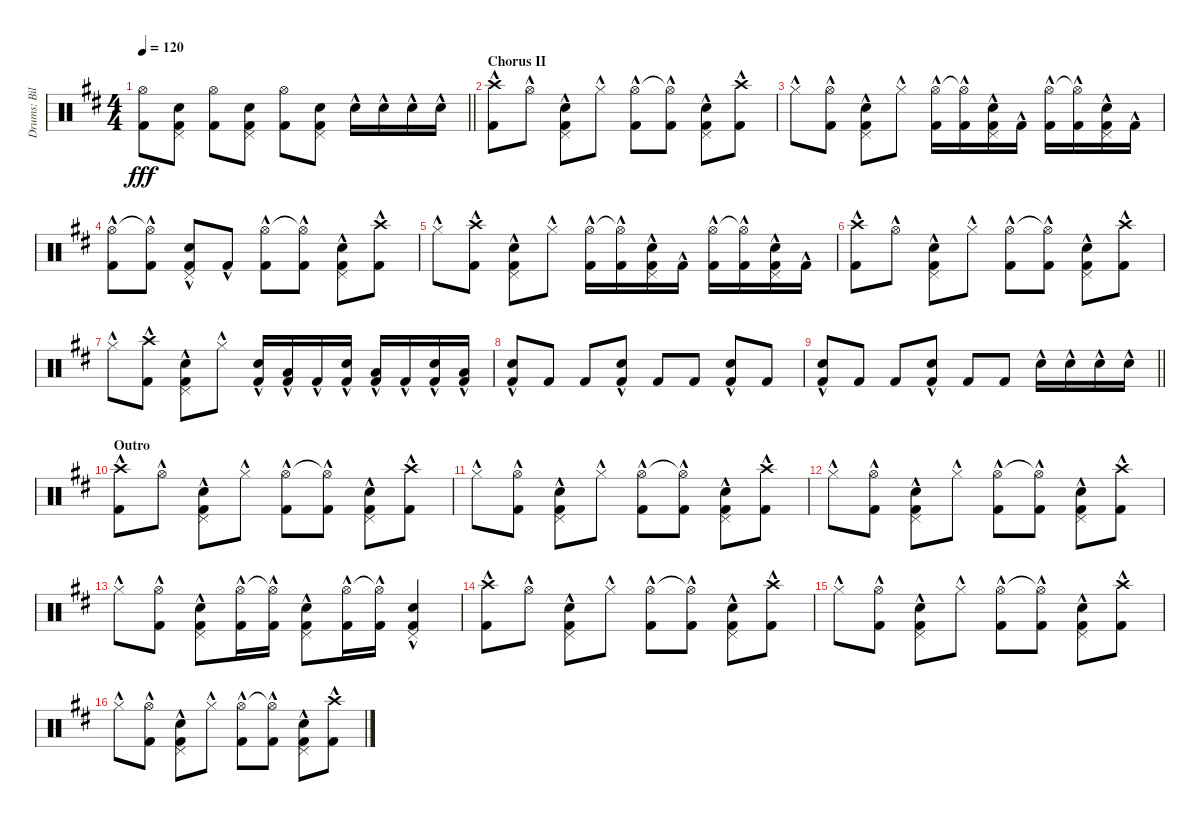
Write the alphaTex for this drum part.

\track ("Drums: Bill" "Drums: Bil") {instrument percussion}
\staff {score}
\articulation defaults
\ts (4 4)
\tempo 120
\clef neutral
\barLineRight lightlight
\ks d
("Hi-Hat (open)" "Kick (hit) 2").8{dy fff} ("Pedal Hi-Hat (hit)" "Snare (hit) 2" "Kick (hit) 2").8 ("Hi-Hat (open)" "Kick (hit) 2").8 ("Pedal Hi-Hat (hit)" "Snare (hit) 2" "Kick (hit) 2").8 ("Hi-Hat (open)" "Kick (hit) 2").8 ("Pedal Hi-Hat (hit)" "Snare (hit) 2" "Kick (hit) 2").8 "Snare (hit) 2"{hac}.16 "Snare (hit) 2"{hac}.16 "Snare (hit) 2"{hac}.16 "Snare (hit) 2"{hac}.16 |
\section ("" "Chorus II")
("Crash high (hit)"{hac} "Kick (hit) 2"{hac}).8 "Hi-Hat (open)"{hac}.8 ("Pedal Hi-Hat (hit)"{hac} "Snare (hit) 2"{hac} "Kick (hit) 2"{hac}).8 "Hi-Hat (closed)"{hac}.8 ("Hi-Hat (open)"{hac} "Kick (hit) 2"{hac}).8 ("Hi-Hat (open)"{t} "Kick (hit) 2"{hac}).8 ("Pedal Hi-Hat (hit)"{hac} "Snare (hit) 2"{hac} "Kick (hit) 2"{hac}).8 ("Crash high (hit)"{hac} "Kick (hit) 2"{hac}).8 |
"Hi-Hat (closed)"{hac}.8 ("Hi-Hat (open)"{hac} "Kick (hit) 2"{hac}).8 ("Pedal Hi-Hat (hit)"{hac} "Snare (hit) 2"{hac} "Kick (hit) 2"{hac}).8 "Hi-Hat (closed)"{hac}.8 ("Hi-Hat (open)"{hac} "Kick (hit) 2"{hac}).16 ("Hi-Hat (open)"{t} "Kick (hit) 2"{hac}).16 ("Pedal Hi-Hat (hit)"{hac} "Snare (hit) 2"{hac} "Kick (hit) 2"{hac}).16 "Kick (hit) 2"{hac}.16 ("Hi-Hat (open)"{hac} "Kick (hit) 2"{hac}).16 ("Hi-Hat (open)"{t} "Kick (hit) 2"{hac}).16 ("Pedal Hi-Hat (hit)"{hac} "Snare (hit) 2"{hac} "Kick (hit) 2"{hac}).16 "Kick (hit) 2"{hac}.16 |
("Hi-Hat (open)"{hac} "Kick (hit) 2"{hac}).8 ("Hi-Hat (open)"{t} "Kick (hit) 2"{hac}).8 ("Pedal Hi-Hat (hit)"{hac} "Snare (hit) 2"{hac} "Kick (hit) 2"{hac}).8 "Kick (hit) 2"{hac}.8 ("Hi-Hat (open)"{hac} "Kick (hit) 2"{hac}).8 ("Hi-Hat (open)"{t} "Kick (hit) 2"{hac}).8 ("Pedal Hi-Hat (hit)"{hac} "Snare (hit) 2"{hac} "Kick (hit) 2"{hac}).8 ("Crash high (hit)"{hac} "Kick (hit) 2"{hac}).8 |
"Hi-Hat (closed)"{hac}.8 ("Crash high (hit)"{hac} "Kick (hit) 2"{hac}).8 ("Pedal Hi-Hat (hit)"{hac} "Snare (hit) 2"{hac} "Kick (hit) 2"{hac}).8 "Hi-Hat (closed)"{hac}.8 ("Hi-Hat (open)"{hac} "Kick (hit) 2"{hac}).16 ("Hi-Hat (open)"{t} "Kick (hit) 2"{hac}).16 ("Pedal Hi-Hat (hit)"{hac} "Snare (hit) 2"{hac} "Kick (hit) 2"{hac}).16 "Kick (hit) 2"{hac}.16 ("Hi-Hat (open)"{hac} "Kick (hit) 2"{hac}).16 ("Hi-Hat (open)"{t} "Kick (hit) 2"{hac}).16 ("Pedal Hi-Hat (hit)"{hac} "Snare (hit) 2"{hac} "Kick (hit) 2"{hac}).16 "Kick (hit) 2"{hac}.16 |
("Crash high (hit)"{hac} "Kick (hit) 2"{hac}).8 "Hi-Hat (open)"{hac}.8 ("Pedal Hi-Hat (hit)"{hac} "Snare (hit) 2"{hac} "Kick (hit) 2"{hac}).8 "Hi-Hat (closed)"{hac}.8 ("Hi-Hat (open)"{hac} "Kick (hit) 2"{hac}).8 ("Hi-Hat (open)"{t} "Kick (hit) 2"{hac}).8 ("Pedal Hi-Hat (hit)"{hac} "Snare (hit) 2"{hac} "Kick (hit) 2"{hac}).8 ("Crash high (hit)"{hac} "Kick (hit) 2"{hac}).8 |
"Hi-Hat (closed)"{hac}.8 ("Crash high (hit)"{hac} "Kick (hit) 2"{hac}).8 ("Pedal Hi-Hat (hit)"{hac} "Snare (hit) 2"{hac} "Kick (hit) 2"{hac}).8 "Hi-Hat (closed)"{hac}.8 ("Snare (hit) 2" "Kick (hit) 2"{hac}).16 ("Low Tom (hit)" "Kick (hit) 2"{hac}).16 "Kick (hit) 2"{hac}.16 ("Snare (hit) 2" "Kick (hit) 2"{hac}).16 ("Low Tom (hit)" "Kick (hit) 2"{hac}).16 "Kick (hit) 2"{hac}.16 ("Snare (hit) 2" "Kick (hit) 2"{hac}).16 ("Low Tom (hit)" "Kick (hit) 2"{hac}).16 |
("Snare (hit) 2" "Kick (hit) 2"{hac}).8 "Kick (hit) 2".8 "Kick (hit) 2".8 ("Snare (hit) 2" "Kick (hit) 2"{hac}).8 "Kick (hit) 2".8 "Kick (hit) 2".8 ("Snare (hit) 2" "Kick (hit) 2"{hac}).8 "Kick (hit) 2".8 |
\barLineRight lightlight
("Snare (hit) 2" "Kick (hit) 2"{hac}).8 "Kick (hit) 2".8 "Kick (hit) 2".8 ("Snare (hit) 2" "Kick (hit) 2"{hac}).8 "Kick (hit) 2".8 "Kick (hit) 2".8 "Snare (hit) 2"{hac}.16 "Snare (hit) 2"{hac}.16 "Snare (hit) 2"{hac}.16 "Snare (hit) 2"{hac}.16 |
\section ("" "Outro")
("Crash high (hit)"{hac} "Kick (hit) 2"{hac}).8 "Hi-Hat (open)"{hac}.8 ("Pedal Hi-Hat (hit)"{hac} "Snare (hit) 2"{hac} "Kick (hit) 2"{hac}).8 "Hi-Hat (closed)"{hac}.8 ("Hi-Hat (open)"{hac} "Kick (hit) 2"{hac}).8 ("Hi-Hat (open)"{t} "Kick (hit) 2"{hac}).8 ("Pedal Hi-Hat (hit)"{hac} "Snare (hit) 2"{hac} "Kick (hit) 2"{hac}).8 ("Crash high (hit)"{hac} "Kick (hit) 2"{hac}).8 |
"Hi-Hat (closed)"{hac}.8 ("Hi-Hat (open)"{hac} "Kick (hit) 2"{hac}).8 ("Pedal Hi-Hat (hit)"{hac} "Snare (hit) 2"{hac} "Kick (hit) 2"{hac}).8 "Hi-Hat (closed)"{hac}.8 ("Hi-Hat (open)"{hac} "Kick (hit) 2"{hac}).8 ("Hi-Hat (open)"{t} "Kick (hit) 2"{hac}).8 ("Pedal Hi-Hat (hit)"{hac} "Snare (hit) 2"{hac} "Kick (hit) 2"{hac}).8 ("Crash high (hit)"{hac} "Kick (hit) 2"{hac}).8 |
"Hi-Hat (closed)"{hac}.8 ("Hi-Hat (open)"{hac} "Kick (hit) 2"{hac}).8 ("Pedal Hi-Hat (hit)"{hac} "Snare (hit) 2"{hac} "Kick (hit) 2"{hac}).8 "Hi-Hat (closed)"{hac}.8 ("Hi-Hat (open)"{hac} "Kick (hit) 2"{hac}).8 ("Hi-Hat (open)"{t} "Kick (hit) 2"{hac}).8 ("Pedal Hi-Hat (hit)"{hac} "Snare (hit) 2"{hac} "Kick (hit) 2"{hac}).8 ("Crash high (hit)"{hac} "Kick (hit) 2"{hac}).8 |
"Hi-Hat (closed)"{hac}.8 ("Hi-Hat (open)"{hac} "Kick (hit) 2"{hac}).8 ("Pedal Hi-Hat (hit)"{hac} "Snare (hit) 2"{hac} "Kick (hit) 2"{hac}).8 ("Hi-Hat (open)"{hac} "Kick (hit) 2"{hac}).16 ("Hi-Hat (open)"{t} "Kick (hit) 2"{hac}).16 ("Pedal Hi-Hat (hit)"{hac} "Snare (hit) 2"{hac} "Kick (hit) 2"{hac}).8 ("Hi-Hat (open)"{hac} "Kick (hit) 2"{hac}).16 ("Hi-Hat (open)"{t} "Kick (hit) 2"{hac}).16 ("Pedal Hi-Hat (hit)"{hac} "Snare (hit) 2"{hac} "Kick (hit) 2"{hac}).4 |
("Crash high (hit)"{hac} "Kick (hit) 2"{hac}).8 "Hi-Hat (open)"{hac}.8 ("Pedal Hi-Hat (hit)"{hac} "Snare (hit) 2"{hac} "Kick (hit) 2"{hac}).8 "Hi-Hat (closed)"{hac}.8 ("Hi-Hat (open)"{hac} "Kick (hit) 2"{hac}).8 ("Hi-Hat (open)"{t} "Kick (hit) 2"{hac}).8 ("Pedal Hi-Hat (hit)"{hac} "Snare (hit) 2"{hac} "Kick (hit) 2"{hac}).8 ("Crash high (hit)"{hac} "Kick (hit) 2"{hac}).8 |
"Hi-Hat (closed)"{hac}.8 ("Hi-Hat (open)"{hac} "Kick (hit) 2"{hac}).8 ("Pedal Hi-Hat (hit)"{hac} "Snare (hit) 2"{hac} "Kick (hit) 2"{hac}).8 "Hi-Hat (closed)"{hac}.8 ("Hi-Hat (open)"{hac} "Kick (hit) 2"{hac}).8 ("Hi-Hat (open)"{t} "Kick (hit) 2"{hac}).8 ("Pedal Hi-Hat (hit)"{hac} "Snare (hit) 2"{hac} "Kick (hit) 2"{hac}).8 ("Crash high (hit)"{hac} "Kick (hit) 2"{hac}).8 |
"Hi-Hat (closed)"{hac}.8 ("Hi-Hat (open)"{hac} "Kick (hit) 2"{hac}).8 ("Pedal Hi-Hat (hit)"{hac} "Snare (hit) 2"{hac} "Kick (hit) 2"{hac}).8 "Hi-Hat (closed)"{hac}.8 ("Hi-Hat (open)"{hac} "Kick (hit) 2"{hac}).8 ("Hi-Hat (open)"{t} "Kick (hit) 2"{hac}).8 ("Pedal Hi-Hat (hit)"{hac} "Snare (hit) 2"{hac} "Kick (hit) 2"{hac}).8 ("Crash high (hit)"{hac} "Kick (hit) 2"{hac}).8
